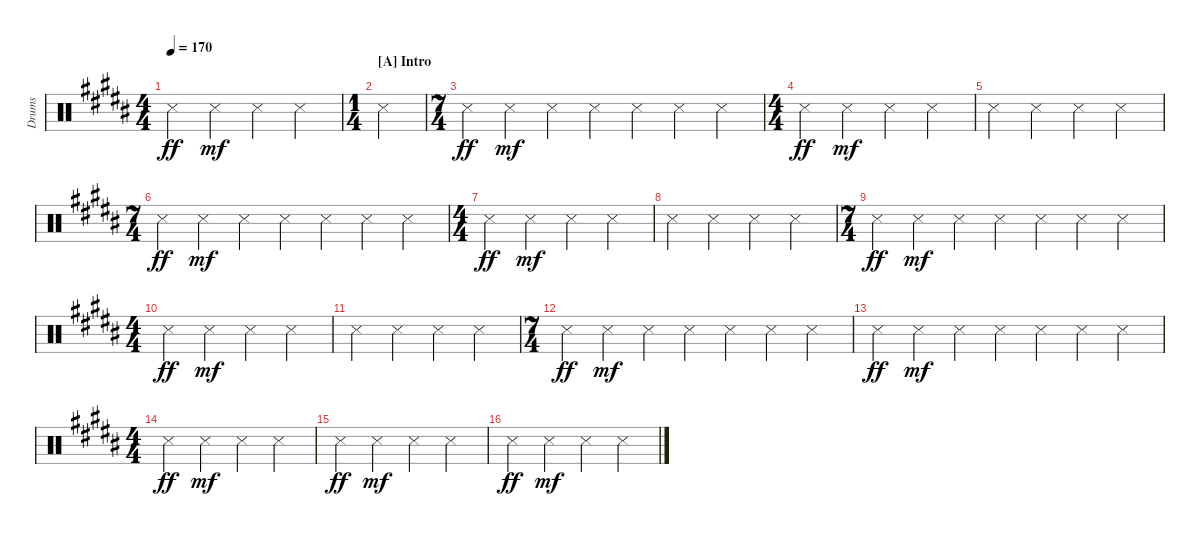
\bracketExtendMode groupsimilarinstruments
\otherSystemsTrackNameOrientation horizontal
\track ("Drumkit" "Drums") {mute instrument percussion}
\staff {score}
\articulation defaults
\ts (4 4)
\tempo 170
\clef neutral
\ks b "Snare (side stick) 3"{acc forcenatural}.4{dy ff} "Snare (side stick) 3"{acc forcenatural}.4{dy mf} "Snare (side stick) 3"{acc forcenatural}.4 "Snare (side stick) 3"{acc forcenatural}.4
|
\ts (1 4)
\section ("A" "Intro")
\scale
0.333333 "Snare (side stick) 3"{acc forcenatural}.4 |
\ts (7 4)
\scale
0.333333 "Snare (side stick) 3"{acc forcenatural}.4{dy ff} "Snare (side stick) 3"{acc forcenatural}.4{dy mf} "Snare (side stick) 3"{acc forcenatural}.4 "Snare (side stick) 3"{acc forcenatural}.4 "Snare (side stick) 3"{acc forcenatural}.4 "Snare (side stick) 3"{acc forcenatural}.4 "Snare (side stick) 3"{acc forcenatural}.4 |
\ts (4 4)
\scale
0.333333 "Snare (side stick) 3"{acc forcenatural}.4{dy ff} "Snare (side stick) 3"{acc forcenatural}.4{dy mf} "Snare (side stick) 3"{acc forcenatural}.4 "Snare (side stick) 3"{acc forcenatural}.4 |
\scale
0.218391 "Snare (side stick) 3"{acc forcenatural}.4 "Snare (side stick) 3"{acc forcenatural}.4 "Snare (side stick) 3"{acc forcenatural}.4 "Snare (side stick) 3"{acc forcenatural}.4 |
\ts (7 4)
\scale
0.390805 "Snare (side stick) 3"{acc forcenatural}.4{dy ff} "Snare (side stick) 3"{acc forcenatural}.4{dy mf} "Snare (side stick) 3"{acc forcenatural}.4 "Snare (side stick) 3"{acc forcenatural}.4 "Snare (side stick) 3"{acc forcenatural}.4 "Snare (side stick) 3"{acc forcenatural}.4 "Snare (side stick) 3"{acc forcenatural}.4 |
\ts (4 4)
\scale
0.390805 "Snare (side stick) 3"{acc forcenatural}.4{dy ff} "Snare (side stick) 3"{acc forcenatural}.4{dy mf} "Snare (side stick) 3"{acc forcenatural}.4 "Snare (side stick) 3"{acc forcenatural}.4 |
\scale
0.218391 "Snare (side stick) 3"{acc forcenatural}.4 "Snare (side stick) 3"{acc forcenatural}.4 "Snare (side stick) 3"{acc forcenatural}.4 "Snare (side stick) 3"{acc forcenatural}.4 |
\ts (7 4)
\scale
0.390805 "Snare (side stick) 3"{acc forcenatural}.4{dy ff} "Snare (side stick) 3"{acc forcenatural}.4{dy mf} "Snare (side stick) 3"{acc forcenatural}.4 "Snare (side stick) 3"{acc forcenatural}.4 "Snare (side stick) 3"{acc forcenatural}.4 "Snare (side stick) 3"{acc forcenatural}.4 "Snare (side stick) 3"{acc forcenatural}.4 |
\ts (4 4)
\scale
0.390805 "Snare (side stick) 3"{acc forcenatural}.4{dy ff} "Snare (side stick) 3"{acc forcenatural}.4{dy mf} "Snare (side stick) 3"{acc forcenatural}.4 "Snare (side stick) 3"{acc forcenatural}.4 |
\scale
0.263889 "Snare (side stick) 3"{acc forcenatural}.4 "Snare (side stick) 3"{acc forcenatural}.4 "Snare (side stick) 3"{acc forcenatural}.4 "Snare (side stick) 3"{acc forcenatural}.4 |
\ts (7 4)
\scale
0.472222 "Snare (side stick) 3"{acc forcenatural}.4{dy ff} "Snare (side stick) 3"{acc forcenatural}.4{dy mf} "Snare (side stick) 3"{acc forcenatural}.4 "Snare (side stick) 3"{acc forcenatural}.4 "Snare (side stick) 3"{acc forcenatural}.4 "Snare (side stick) 3"{acc forcenatural}.4 "Snare (side stick) 3"{acc forcenatural}.4 |
\scale
0.263889 "Snare (side stick) 3"{acc forcenatural}.4{dy ff} "Snare (side stick) 3"{acc forcenatural}.4{dy mf} "Snare (side stick) 3"{acc forcenatural}.4 "Snare (side stick) 3"{acc forcenatural}.4 "Snare (side stick) 3"{acc forcenatural}.4 "Snare (side stick) 3"{acc forcenatural}.4 "Snare (side stick) 3"{acc forcenatural}.4 |
\ts (4 4)
\scale
0.472222 "Snare (side stick) 3"{acc forcenatural}.4{dy ff} "Snare (side stick) 3"{acc forcenatural}.4{dy mf} "Snare (side stick) 3"{acc forcenatural}.4 "Snare (side stick) 3"{acc forcenatural}.4 |
\scale
0.263889 "Snare (side stick) 3"{acc forcenatural}.4{dy ff} "Snare (side stick) 3"{acc forcenatural}.4{dy mf} "Snare (side stick) 3"{acc forcenatural}.4 "Snare (side stick) 3"{acc forcenatural}.4 |
\scale
0.263889 "Snare (side stick) 3"{acc forcenatural}.4{dy ff} "Snare (side stick) 3"{acc forcenatural}.4{dy mf} "Snare (side stick) 3"{acc forcenatural}.4 "Snare (side stick) 3"{acc forcenatural}.4
